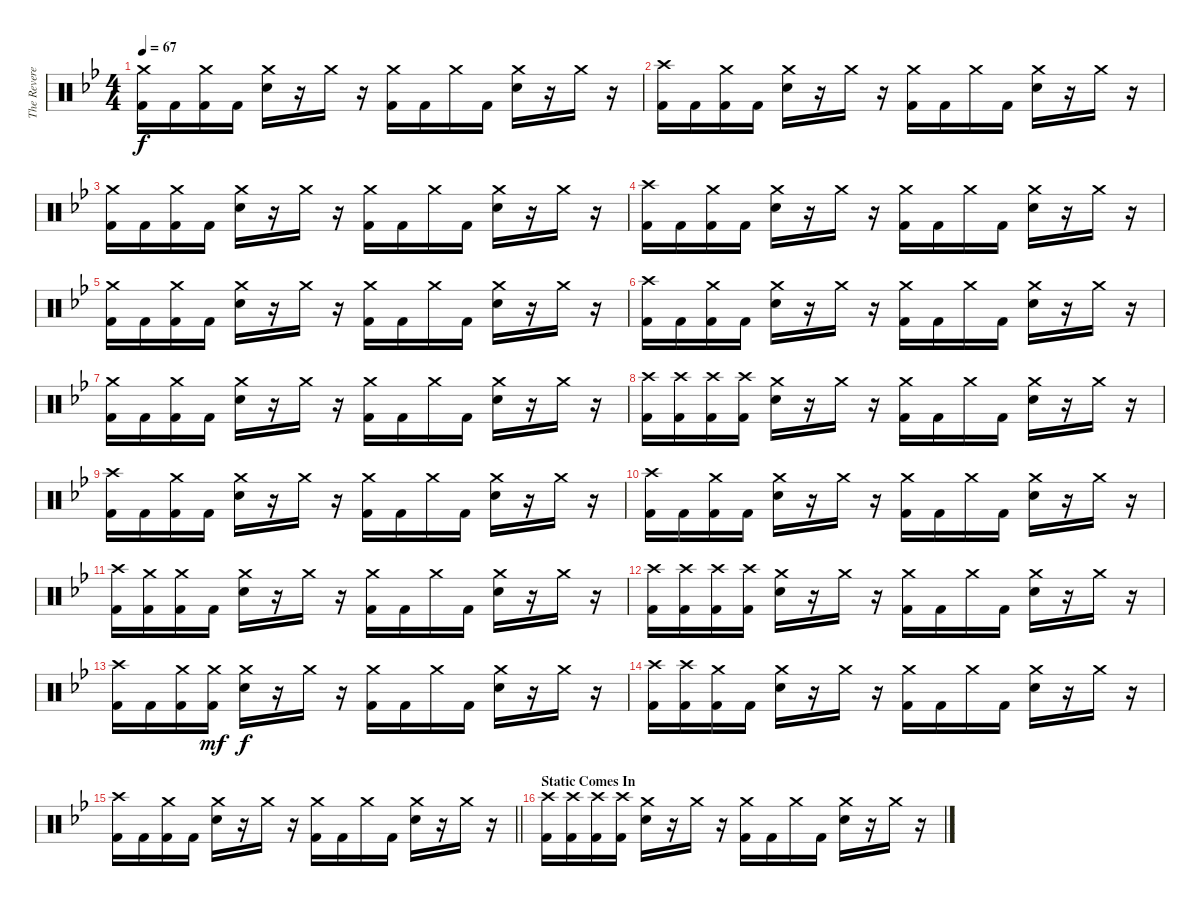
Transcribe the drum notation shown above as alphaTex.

\track ("The Reverend" "The Revere") {instrument percussion}
\staff {score}
\articulation defaults
\ts (4 4)
\tempo 67
\clef neutral
\ks bb
("Crash medium (hit)" "Kick (hit) 2").16{dy f} "Kick (hit) 2".16 ("Crash medium (hit)" "Kick (hit) 2").16 "Kick (hit) 2".16 ("Crash medium (hit)" "Electric Snare (hit)").16 r.16 "Crash medium (hit)".16 r.16 ("Crash medium (hit)" "Kick (hit) 2").16 "Kick (hit) 2".16 "Crash medium (hit)".16 "Kick (hit) 2".16 ("Crash medium (hit)" "Electric Snare (hit)").16 r.16 "Crash medium (hit)".16 r.16 |
("Crash high (hit)" "Kick (hit) 2").16 "Kick (hit) 2".16 ("Crash medium (hit)" "Kick (hit) 2").16 "Kick (hit) 2".16 ("Crash medium (hit)" "Electric Snare (hit)").16 r.16 "Crash medium (hit)".16 r.16 ("Crash medium (hit)" "Kick (hit) 2").16 "Kick (hit) 2".16 "Crash medium (hit)".16 "Kick (hit) 2".16 ("Crash medium (hit)" "Electric Snare (hit)").16 r.16 "Crash medium (hit)".16 r.16 |
("Crash medium (hit)" "Kick (hit) 2").16 "Kick (hit) 2".16 ("Crash medium (hit)" "Kick (hit) 2").16 "Kick (hit) 2".16 ("Crash medium (hit)" "Electric Snare (hit)").16 r.16 "Crash medium (hit)".16 r.16 ("Crash medium (hit)" "Kick (hit) 2").16 "Kick (hit) 2".16 "Crash medium (hit)".16 "Kick (hit) 2".16 ("Crash medium (hit)" "Electric Snare (hit)").16 r.16 "Crash medium (hit)".16 r.16 |
("Crash high (hit)" "Kick (hit) 2").16 "Kick (hit) 2".16 ("Crash medium (hit)" "Kick (hit) 2").16 "Kick (hit) 2".16 ("Crash medium (hit)" "Electric Snare (hit)").16 r.16 "Crash medium (hit)".16 r.16 ("Crash medium (hit)" "Kick (hit) 2").16 "Kick (hit) 2".16 "Crash medium (hit)".16 "Kick (hit) 2".16 ("Crash medium (hit)" "Electric Snare (hit)").16 r.16 "Crash medium (hit)".16 r.16 |
("Crash medium (hit)" "Kick (hit) 2").16 "Kick (hit) 2".16 ("Crash medium (hit)" "Kick (hit) 2").16 "Kick (hit) 2".16 ("Crash medium (hit)" "Electric Snare (hit)").16 r.16 "Crash medium (hit)".16 r.16 ("Crash medium (hit)" "Kick (hit) 2").16 "Kick (hit) 2".16 "Crash medium (hit)".16 "Kick (hit) 2".16 ("Crash medium (hit)" "Electric Snare (hit)").16 r.16 "Crash medium (hit)".16 r.16 |
("Crash high (hit)" "Kick (hit) 2").16 "Kick (hit) 2".16 ("Crash medium (hit)" "Kick (hit) 2").16 "Kick (hit) 2".16 ("Crash medium (hit)" "Electric Snare (hit)").16 r.16 "Crash medium (hit)".16 r.16 ("Crash medium (hit)" "Kick (hit) 2").16 "Kick (hit) 2".16 "Crash medium (hit)".16 "Kick (hit) 2".16 ("Crash medium (hit)" "Electric Snare (hit)").16 r.16 "Crash medium (hit)".16 r.16 |
("Crash medium (hit)" "Kick (hit) 2").16 "Kick (hit) 2".16 ("Crash medium (hit)" "Kick (hit) 2").16 "Kick (hit) 2".16 ("Crash medium (hit)" "Electric Snare (hit)").16 r.16 "Crash medium (hit)".16 r.16 ("Crash medium (hit)" "Kick (hit) 2").16 "Kick (hit) 2".16 "Crash medium (hit)".16 "Kick (hit) 2".16 ("Crash medium (hit)" "Electric Snare (hit)").16 r.16 "Crash medium (hit)".16 r.16 |
("Crash high (hit)" "Kick (hit) 2").16 ("Crash high (hit)" "Kick (hit) 2").16 ("Crash high (hit)" "Kick (hit) 2").16 ("Crash high (hit)" "Kick (hit) 2").16 ("Crash medium (hit)" "Electric Snare (hit)").16 r.16 "Crash medium (hit)".16 r.16 ("Crash medium (hit)" "Kick (hit) 2").16 "Kick (hit) 2".16 "Crash medium (hit)".16 "Kick (hit) 2".16 ("Crash medium (hit)" "Electric Snare (hit)").16 r.16 "Crash medium (hit)".16 r.16 |
("Crash high (hit)" "Kick (hit) 2").16 "Kick (hit) 2".16 ("Crash medium (hit)" "Kick (hit) 2").16 "Kick (hit) 2".16 ("Crash medium (hit)" "Electric Snare (hit)").16 r.16 "Crash medium (hit)".16 r.16 ("Crash medium (hit)" "Kick (hit) 2").16 "Kick (hit) 2".16 "Crash medium (hit)".16 "Kick (hit) 2".16 ("Crash medium (hit)" "Electric Snare (hit)").16 r.16 "Crash medium (hit)".16 r.16 |
("Crash high (hit)" "Kick (hit) 2").16 "Kick (hit) 2".16 ("Crash medium (hit)" "Kick (hit) 2").16 "Kick (hit) 2".16 ("Crash medium (hit)" "Electric Snare (hit)").16 r.16 "Crash medium (hit)".16 r.16 ("Crash medium (hit)" "Kick (hit) 2").16 "Kick (hit) 2".16 "Crash medium (hit)".16 "Kick (hit) 2".16 ("Crash medium (hit)" "Electric Snare (hit)").16 r.16 "Crash medium (hit)".16 r.16 |
("Crash high (hit)" "Kick (hit) 2").16 ("Crash medium (hit)" "Kick (hit) 2").16 ("Crash medium (hit)" "Kick (hit) 2").16 "Kick (hit) 2".16 ("Crash medium (hit)" "Electric Snare (hit)").16 r.16 "Crash medium (hit)".16 r.16 ("Crash medium (hit)" "Kick (hit) 2").16 "Kick (hit) 2".16 "Crash medium (hit)".16 "Kick (hit) 2".16 ("Crash medium (hit)" "Electric Snare (hit)").16 r.16 "Crash medium (hit)".16 r.16 |
("Crash high (hit)" "Kick (hit) 2").16 ("Crash high (hit)" "Kick (hit) 2").16 ("Crash high (hit)" "Kick (hit) 2").16 ("Crash high (hit)" "Kick (hit) 2").16 ("Crash medium (hit)" "Electric Snare (hit)").16 r.16 "Crash medium (hit)".16 r.16 ("Crash medium (hit)" "Kick (hit) 2").16 "Kick (hit) 2".16 "Crash medium (hit)".16 "Kick (hit) 2".16 ("Crash medium (hit)" "Electric Snare (hit)").16 r.16 "Crash medium (hit)".16 r.16 |
("Crash high (hit)" "Kick (hit) 2").16 "Kick (hit) 2".16 ("Crash medium (hit)" "Kick (hit) 2").16 ("Crash medium (hit)" "Kick (hit) 2").16{dy mf} ("Crash medium (hit)" "Electric Snare (hit)").16{dy f} r.16 "Crash medium (hit)".16 r.16 ("Crash medium (hit)" "Kick (hit) 2").16 "Kick (hit) 2".16 "Crash medium (hit)".16 "Kick (hit) 2".16 ("Crash medium (hit)" "Electric Snare (hit)").16 r.16 "Crash medium (hit)".16 r.16 |
("Crash high (hit)" "Kick (hit) 2").16 ("Crash high (hit)" "Kick (hit) 2").16 ("Crash medium (hit)" "Kick (hit) 2").16 "Kick (hit) 2".16 ("Crash medium (hit)" "Electric Snare (hit)").16 r.16 "Crash medium (hit)".16 r.16 ("Crash medium (hit)" "Kick (hit) 2").16 "Kick (hit) 2".16 "Crash medium (hit)".16 "Kick (hit) 2".16 ("Crash medium (hit)" "Electric Snare (hit)").16 r.16 "Crash medium (hit)".16 r.16 |
\barLineRight lightlight
("Crash high (hit)" "Kick (hit) 2").16 "Kick (hit) 2".16 ("Crash medium (hit)" "Kick (hit) 2").16 "Kick (hit) 2".16 ("Crash medium (hit)" "Electric Snare (hit)").16 r.16 "Crash medium (hit)".16 r.16 ("Crash medium (hit)" "Kick (hit) 2").16 "Kick (hit) 2".16 "Crash medium (hit)".16 "Kick (hit) 2".16 ("Crash medium (hit)" "Electric Snare (hit)").16 r.16 "Crash medium (hit)".16 r.16 |
\section ("" "Static Comes In")
("Crash high (hit)" "Kick (hit) 2").16{volume 6} ("Crash high (hit)" "Kick (hit) 2").16 ("Crash high (hit)" "Kick (hit) 2").16 ("Crash high (hit)" "Kick (hit) 2").16 ("Crash medium (hit)" "Electric Snare (hit)").16 r.16 "Crash medium (hit)".16 r.16 ("Crash medium (hit)" "Kick (hit) 2").16 "Kick (hit) 2".16 "Crash medium (hit)".16 "Kick (hit) 2".16 ("Crash medium (hit)" "Electric Snare (hit)").16 r.16 "Crash medium (hit)".16 r.16
